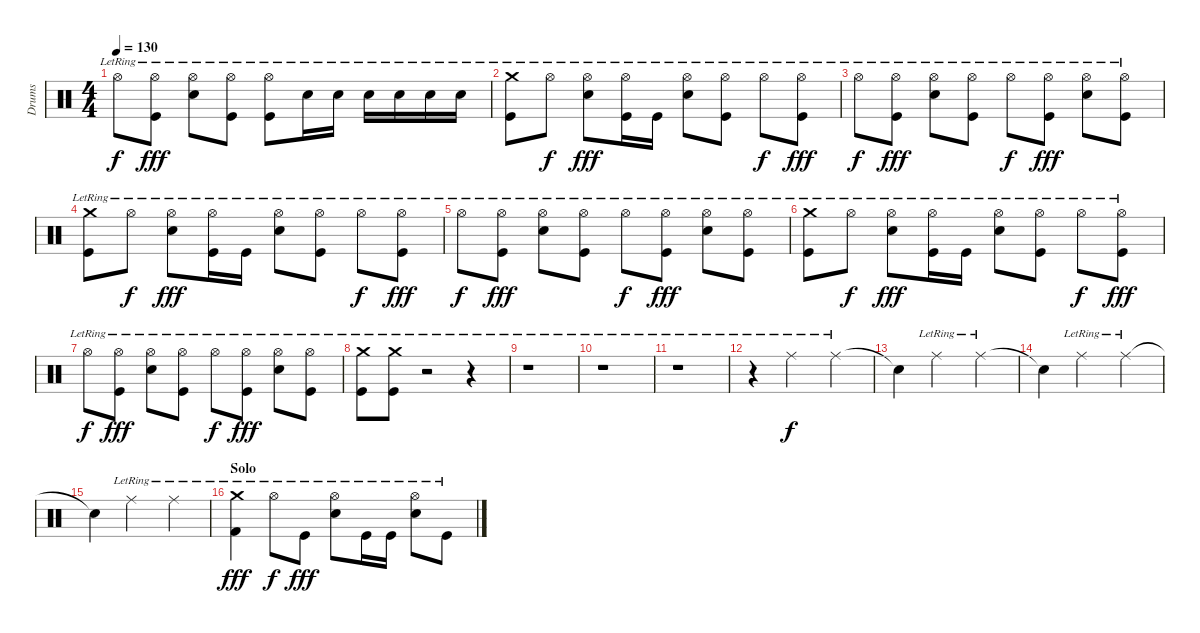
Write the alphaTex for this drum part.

\track ("Drums" "Drums") {instrument percussion}
\staff {score}
\articulation defaults
\ts (4 4)
\tempo 130
\clef neutral
\ks c "Hi-Hat (open)"{lr}.8{dy f}
("Kick (hit)"{lr} "Hi-Hat (open)"{lr}).8{dy fff} ("Snare (hit) 2"{lr} "Hi-Hat (open)"{lr}).8 ("Kick (hit)"{lr} "Hi-Hat (open)"{lr}).8 ("Kick (hit)"{lr} "Hi-Hat (open)"{lr}).8 "Snare (hit) 2"{lr}.16 "Snare (hit) 2"{lr}.16 "Snare (hit) 2"{lr}.16 "Snare (hit) 2"{lr}.16 "Snare (hit) 2"{lr}.16 "Snare (hit) 2"{lr}.16 |
("Kick (hit)"{lr} "Crash medium (hit)"{lr}).8 "Hi-Hat (open)"{lr}.8{dy f} ("Snare (hit) 2"{lr} "Hi-Hat (open)"{lr}).8{dy fff} ("Kick (hit)"{lr} "Hi-Hat (open)"{lr}).16 "Kick (hit)"{lr}.16 ("Snare (hit) 2"{lr} "Hi-Hat (open)"{lr}).8 ("Kick (hit)"{lr} "Hi-Hat (open)"{lr}).8 "Hi-Hat (open)"{lr}.8{dy f} ("Kick (hit)"{lr} "Hi-Hat (open)"{lr}).8{dy fff} |
"Hi-Hat (open)"{lr}.8{dy f} ("Kick (hit)"{lr} "Hi-Hat (open)"{lr}).8{dy fff} ("Snare (hit) 2"{lr} "Hi-Hat (open)"{lr}).8 ("Kick (hit)"{lr} "Hi-Hat (open)"{lr}).8 "Hi-Hat (open)"{lr}.8{dy f} ("Kick (hit)"{lr} "Hi-Hat (open)"{lr}).8{dy fff} ("Snare (hit) 2"{lr} "Hi-Hat (open)"{lr}).8 ("Kick (hit)"{lr} "Hi-Hat (open)"{lr}).8 |
("Kick (hit)"{lr} "Crash medium (hit)"{lr}).8 "Hi-Hat (open)"{lr}.8{dy f} ("Snare (hit) 2"{lr} "Hi-Hat (open)"{lr}).8{dy fff} ("Kick (hit)"{lr} "Hi-Hat (open)"{lr}).16 "Kick (hit)"{lr}.16 ("Snare (hit) 2"{lr} "Hi-Hat (open)"{lr}).8 ("Kick (hit)"{lr} "Hi-Hat (open)"{lr}).8 "Hi-Hat (open)"{lr}.8{dy f} ("Kick (hit)"{lr} "Hi-Hat (open)"{lr}).8{dy fff} |
"Hi-Hat (open)"{lr}.8{dy f} ("Kick (hit)"{lr} "Hi-Hat (open)"{lr}).8{dy fff} ("Snare (hit) 2"{lr} "Hi-Hat (open)"{lr}).8 ("Kick (hit)"{lr} "Hi-Hat (open)"{lr}).8 "Hi-Hat (open)"{lr}.8{dy f} ("Kick (hit)"{lr} "Hi-Hat (open)"{lr}).8{dy fff} ("Snare (hit) 2"{lr} "Hi-Hat (open)"{lr}).8 ("Kick (hit)"{lr} "Hi-Hat (open)"{lr}).8 |
("Kick (hit)"{lr} "Crash medium (hit)"{lr}).8 "Hi-Hat (open)"{lr}.8{dy f} ("Snare (hit) 2"{lr} "Hi-Hat (open)"{lr}).8{dy fff} ("Kick (hit)"{lr} "Hi-Hat (open)"{lr}).16 "Kick (hit)"{lr}.16 ("Snare (hit) 2"{lr} "Hi-Hat (open)"{lr}).8 ("Kick (hit)"{lr} "Hi-Hat (open)"{lr}).8 "Hi-Hat (open)"{lr}.8{dy f} ("Kick (hit)"{lr} "Hi-Hat (open)"{lr}).8{dy fff} |
"Hi-Hat (open)"{lr}.8{dy f} ("Kick (hit)"{lr} "Hi-Hat (open)"{lr}).8{dy fff} ("Snare (hit) 2"{lr} "Hi-Hat (open)"{lr}).8 ("Kick (hit)"{lr} "Hi-Hat (open)"{lr}).8 "Hi-Hat (open)"{lr}.8{dy f} ("Kick (hit)"{lr} "Hi-Hat (open)"{lr}).8{dy fff} ("Snare (hit) 2"{lr} "Hi-Hat (open)"{lr}).8 ("Kick (hit)"{lr} "Hi-Hat (open)"{lr}).8 |
("Kick (hit)"{lr} "Crash medium (hit)"{lr}).8 ("Kick (hit)"{lr} "Crash medium (hit)"{lr}).8 r.2 r.4 |
r.1 |
r.1 |
r.1 |
r.4 "Ride (middle)"{lr}.2{dy f} "Ride (middle)"{lr}.4 |
"Snare (hit)"{t}.4 "Ride (middle)"{lr}.2 "Ride (middle)"{lr}.4 |
"Snare (hit)"{t}.4 "Ride (middle)"{lr}.2 "Ride (middle)"{lr}.4 |
"Snare (hit)"{t}.4 "Ride (middle)"{lr}.2 "Ride (middle)"{lr}.4 |
\section ("" "Solo")
("Kick (hit) 2"{lr} "Crash medium (hit)"{lr}).4{dy fff} "Hi-Hat (open)"{lr}.8{dy f} "Kick (hit)"{lr}.8{dy fff} ("Snare (hit) 2"{lr} "Hi-Hat (open)"{lr}).8 "Kick (hit)"{lr}.16 "Kick (hit)"{lr}.16 ("Snare (hit) 2"{lr} "Hi-Hat (open)"{lr}).8 "Kick (hit)"{lr}.8
